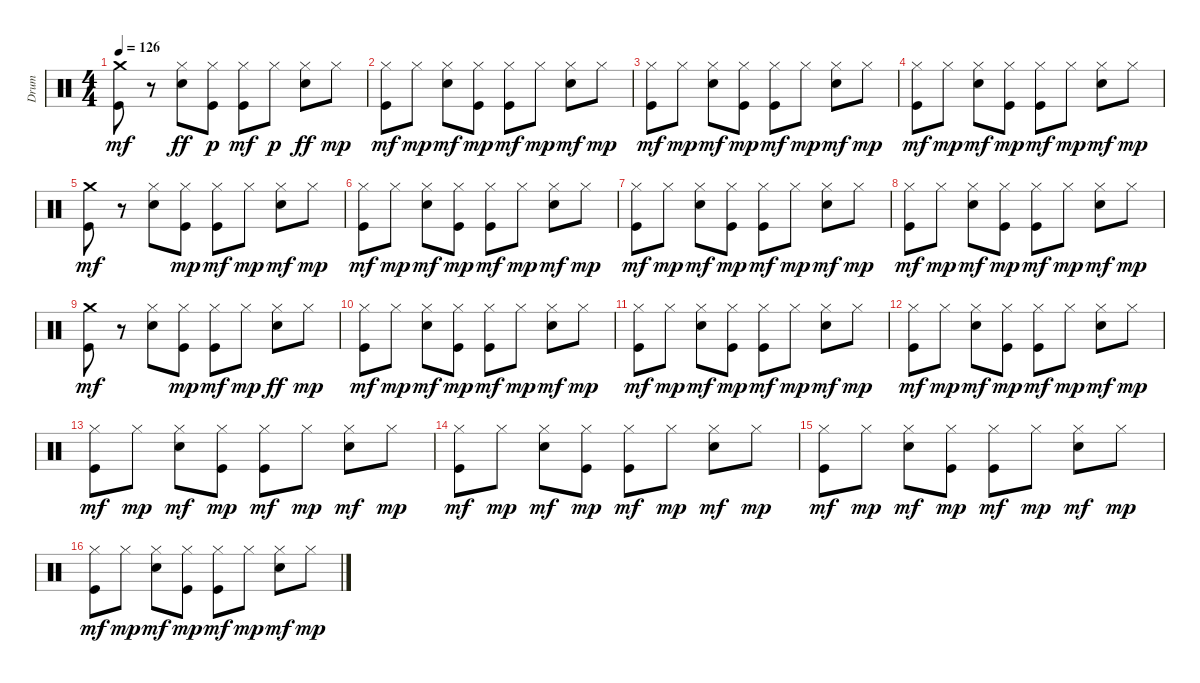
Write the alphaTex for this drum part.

\track ("Drum" "Drum") {instrument percussion}
\staff {score}
\articulation defaults
\ts (4 4)
\tempo 126
\clef neutral
\ks c
("Kick (hit)" "Crash medium (hit)").8{dy mf} r.8 ("Snare (hit) 2" "Hi-Hat (closed)").8{dy ff} ("Kick (hit)" "Hi-Hat (closed)").8{dy p} ("Kick (hit)" "Hi-Hat (closed)").8{dy mf} "Hi-Hat (closed)".8{dy p} ("Snare (hit) 2" "Hi-Hat (closed)").8{dy ff} "Hi-Hat (closed)".8{dy mp} |
("Kick (hit)" "Hi-Hat (closed)").8{dy mf} "Hi-Hat (closed)".8{dy mp} ("Snare (hit) 2" "Hi-Hat (closed)").8{dy mf} ("Kick (hit)" "Hi-Hat (closed)").8{dy mp} ("Kick (hit)" "Hi-Hat (closed)").8{dy mf} "Hi-Hat (closed)".8{dy mp} ("Snare (hit) 2" "Hi-Hat (closed)").8{dy mf} "Hi-Hat (closed)".8{dy mp} |
("Kick (hit)" "Hi-Hat (closed)").8{dy mf} "Hi-Hat (closed)".8{dy mp} ("Snare (hit) 2" "Hi-Hat (closed)").8{dy mf} ("Kick (hit)" "Hi-Hat (closed)").8{dy mp} ("Kick (hit)" "Hi-Hat (closed)").8{dy mf} "Hi-Hat (closed)".8{dy mp} ("Snare (hit) 2" "Hi-Hat (closed)").8{dy mf} "Hi-Hat (closed)".8{dy mp} |
("Kick (hit)" "Hi-Hat (closed)").8{dy mf} "Hi-Hat (closed)".8{dy mp} ("Snare (hit) 2" "Hi-Hat (closed)").8{dy mf} ("Kick (hit)" "Hi-Hat (closed)").8{dy mp} ("Kick (hit)" "Hi-Hat (closed)").8{dy mf} "Hi-Hat (closed)".8{dy mp} ("Snare (hit) 2" "Hi-Hat (closed)").8{dy mf} "Hi-Hat (closed)".8{dy mp} |
("Kick (hit)" "Crash medium (hit)").8{dy mf} r.8 ("Snare (hit) 2" "Hi-Hat (closed)").8 ("Kick (hit)" "Hi-Hat (closed)").8{dy mp} ("Kick (hit)" "Hi-Hat (closed)").8{dy mf} "Hi-Hat (closed)".8{dy mp} ("Snare (hit) 2" "Hi-Hat (closed)").8{dy mf} "Hi-Hat (closed)".8{dy mp} |
("Kick (hit)" "Hi-Hat (closed)").8{dy mf} "Hi-Hat (closed)".8{dy mp} ("Snare (hit) 2" "Hi-Hat (closed)").8{dy mf} ("Kick (hit)" "Hi-Hat (closed)").8{dy mp} ("Kick (hit)" "Hi-Hat (closed)").8{dy mf} "Hi-Hat (closed)".8{dy mp} ("Snare (hit) 2" "Hi-Hat (closed)").8{dy mf} "Hi-Hat (closed)".8{dy mp} |
("Kick (hit)" "Hi-Hat (closed)").8{dy mf} "Hi-Hat (closed)".8{dy mp} ("Snare (hit) 2" "Hi-Hat (closed)").8{dy mf} ("Kick (hit)" "Hi-Hat (closed)").8{dy mp} ("Kick (hit)" "Hi-Hat (closed)").8{dy mf} "Hi-Hat (closed)".8{dy mp} ("Snare (hit) 2" "Hi-Hat (closed)").8{dy mf} "Hi-Hat (closed)".8{dy mp} |
("Kick (hit)" "Hi-Hat (closed)").8{dy mf} "Hi-Hat (closed)".8{dy mp} ("Snare (hit) 2" "Hi-Hat (closed)").8{dy mf} ("Kick (hit)" "Hi-Hat (closed)").8{dy mp} ("Kick (hit)" "Hi-Hat (closed)").8{dy mf} "Hi-Hat (closed)".8{dy mp} ("Snare (hit) 2" "Hi-Hat (closed)").8{dy mf} "Hi-Hat (closed)".8{dy mp} |
("Kick (hit)" "Crash medium (hit)").8{dy mf} r.8 ("Snare (hit) 2" "Hi-Hat (closed)").8 ("Kick (hit)" "Hi-Hat (closed)").8{dy mp} ("Kick (hit)" "Hi-Hat (closed)").8{dy mf} "Hi-Hat (closed)".8{dy mp} ("Snare (hit) 2" "Hi-Hat (closed)").8{dy ff} "Hi-Hat (closed)".8{dy mp} |
("Kick (hit)" "Hi-Hat (closed)").8{dy mf} "Hi-Hat (closed)".8{dy mp} ("Snare (hit) 2" "Hi-Hat (closed)").8{dy mf} ("Kick (hit)" "Hi-Hat (closed)").8{dy mp} ("Kick (hit)" "Hi-Hat (closed)").8{dy mf} "Hi-Hat (closed)".8{dy mp} ("Snare (hit) 2" "Hi-Hat (closed)").8{dy mf} "Hi-Hat (closed)".8{dy mp} |
("Kick (hit)" "Hi-Hat (closed)").8{dy mf} "Hi-Hat (closed)".8{dy mp} ("Snare (hit) 2" "Hi-Hat (closed)").8{dy mf} ("Kick (hit)" "Hi-Hat (closed)").8{dy mp} ("Kick (hit)" "Hi-Hat (closed)").8{dy mf} "Hi-Hat (closed)".8{dy mp} ("Snare (hit) 2" "Hi-Hat (closed)").8{dy mf} "Hi-Hat (closed)".8{dy mp} |
("Kick (hit)" "Hi-Hat (closed)").8{dy mf} "Hi-Hat (closed)".8{dy mp} ("Snare (hit) 2" "Hi-Hat (closed)").8{dy mf} ("Kick (hit)" "Hi-Hat (closed)").8{dy mp} ("Kick (hit)" "Hi-Hat (closed)").8{dy mf} "Hi-Hat (closed)".8{dy mp} ("Snare (hit) 2" "Hi-Hat (closed)").8{dy mf} "Hi-Hat (closed)".8{dy mp} |
("Kick (hit)" "Hi-Hat (closed)").8{dy mf} "Hi-Hat (closed)".8{dy mp} ("Snare (hit) 2" "Hi-Hat (closed)").8{dy mf} ("Kick (hit)" "Hi-Hat (closed)").8{dy mp} ("Kick (hit)" "Hi-Hat (closed)").8{dy mf} "Hi-Hat (closed)".8{dy mp} ("Snare (hit) 2" "Hi-Hat (closed)").8{dy mf} "Hi-Hat (closed)".8{dy mp} |
("Kick (hit)" "Hi-Hat (closed)").8{dy mf} "Hi-Hat (closed)".8{dy mp} ("Snare (hit) 2" "Hi-Hat (closed)").8{dy mf} ("Kick (hit)" "Hi-Hat (closed)").8{dy mp} ("Kick (hit)" "Hi-Hat (closed)").8{dy mf} "Hi-Hat (closed)".8{dy mp} ("Snare (hit) 2" "Hi-Hat (closed)").8{dy mf} "Hi-Hat (closed)".8{dy mp} |
("Kick (hit)" "Hi-Hat (closed)").8{dy mf} "Hi-Hat (closed)".8{dy mp} ("Snare (hit) 2" "Hi-Hat (closed)").8{dy mf} ("Kick (hit)" "Hi-Hat (closed)").8{dy mp} ("Kick (hit)" "Hi-Hat (closed)").8{dy mf} "Hi-Hat (closed)".8{dy mp} ("Snare (hit) 2" "Hi-Hat (closed)").8{dy mf} "Hi-Hat (closed)".8{dy mp} |
("Kick (hit)" "Hi-Hat (closed)").8{dy mf} "Hi-Hat (closed)".8{dy mp} ("Snare (hit) 2" "Hi-Hat (closed)").8{dy mf} ("Kick (hit)" "Hi-Hat (closed)").8{dy mp} ("Kick (hit)" "Hi-Hat (closed)").8{dy mf} "Hi-Hat (closed)".8{dy mp} ("Snare (hit) 2" "Hi-Hat (closed)").8{dy mf} "Hi-Hat (closed)".8{dy mp}
